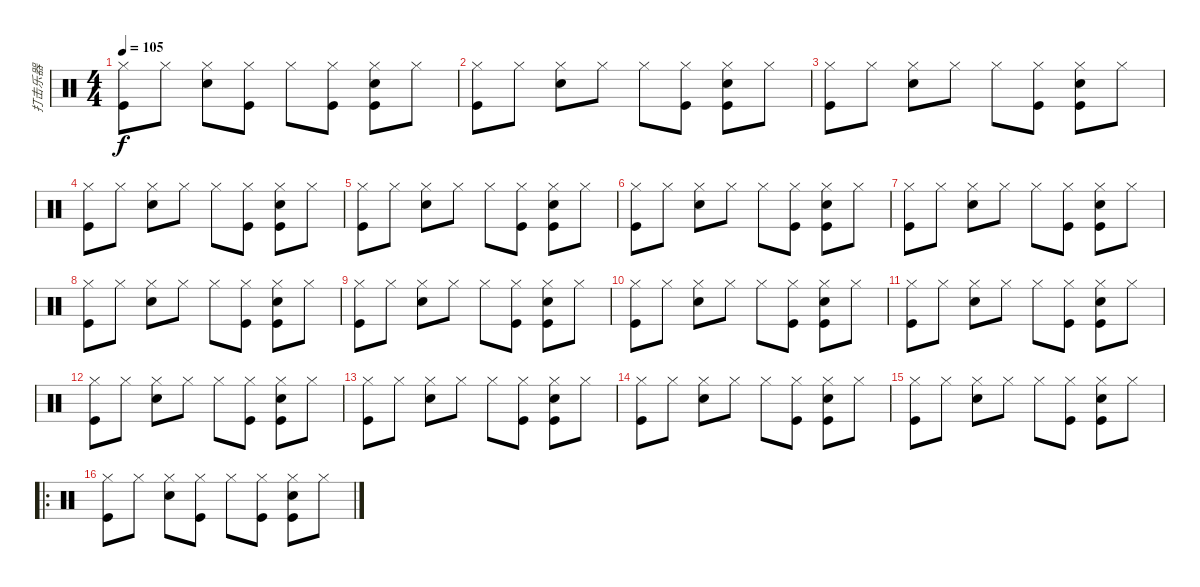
\track ("打击乐器" "打击乐器") {instrument percussion}
\staff {score}
\articulation defaults
\ts (4 4)
\tempo 105
\clef neutral
\ks c
("Hi-Hat (closed)" "Kick (hit)").8{dy f} "Hi-Hat (closed)".8 ("Hi-Hat (closed)" "Snare (hit) 2").8 ("Hi-Hat (closed)" "Kick (hit)").8 "Hi-Hat (closed)".8 ("Hi-Hat (closed)" "Kick (hit)").8 ("Hi-Hat (closed)" "Snare (hit) 2" "Kick (hit)").8 "Hi-Hat (closed)".8 |
("Hi-Hat (closed)" "Kick (hit)").8 "Hi-Hat (closed)".8 ("Hi-Hat (closed)" "Snare (hit) 2").8 "Hi-Hat (closed)".8 "Hi-Hat (closed)".8 ("Hi-Hat (closed)" "Kick (hit)").8 ("Hi-Hat (closed)" "Snare (hit) 2" "Kick (hit)").8 "Hi-Hat (closed)".8 |
("Hi-Hat (closed)" "Kick (hit)").8 "Hi-Hat (closed)".8 ("Hi-Hat (closed)" "Snare (hit) 2").8 "Hi-Hat (closed)".8 "Hi-Hat (closed)".8 ("Hi-Hat (closed)" "Kick (hit)").8 ("Hi-Hat (closed)" "Snare (hit) 2" "Kick (hit)").8 "Hi-Hat (closed)".8 |
("Hi-Hat (closed)" "Kick (hit)").8 "Hi-Hat (closed)".8 ("Hi-Hat (closed)" "Snare (hit) 2").8 "Hi-Hat (closed)".8 "Hi-Hat (closed)".8 ("Hi-Hat (closed)" "Kick (hit)").8 ("Hi-Hat (closed)" "Snare (hit) 2" "Kick (hit)").8 "Hi-Hat (closed)".8 |
("Hi-Hat (closed)" "Kick (hit)").8 "Hi-Hat (closed)".8 ("Hi-Hat (closed)" "Snare (hit) 2").8 "Hi-Hat (closed)".8 "Hi-Hat (closed)".8 ("Hi-Hat (closed)" "Kick (hit)").8 ("Hi-Hat (closed)" "Snare (hit) 2" "Kick (hit)").8 "Hi-Hat (closed)".8 |
("Hi-Hat (closed)" "Kick (hit)").8 "Hi-Hat (closed)".8 ("Hi-Hat (closed)" "Snare (hit) 2").8 "Hi-Hat (closed)".8 "Hi-Hat (closed)".8 ("Hi-Hat (closed)" "Kick (hit)").8 ("Hi-Hat (closed)" "Snare (hit) 2" "Kick (hit)").8 "Hi-Hat (closed)".8 |
("Hi-Hat (closed)" "Kick (hit)").8 "Hi-Hat (closed)".8 ("Hi-Hat (closed)" "Snare (hit) 2").8 "Hi-Hat (closed)".8 "Hi-Hat (closed)".8 ("Hi-Hat (closed)" "Kick (hit)").8 ("Hi-Hat (closed)" "Snare (hit) 2" "Kick (hit)").8 "Hi-Hat (closed)".8 |
("Hi-Hat (closed)" "Kick (hit)").8 "Hi-Hat (closed)".8 ("Hi-Hat (closed)" "Snare (hit) 2").8 "Hi-Hat (closed)".8 "Hi-Hat (closed)".8 ("Hi-Hat (closed)" "Kick (hit)").8 ("Hi-Hat (closed)" "Snare (hit) 2" "Kick (hit)").8 "Hi-Hat (closed)".8 |
("Hi-Hat (closed)" "Kick (hit)").8 "Hi-Hat (closed)".8 ("Hi-Hat (closed)" "Snare (hit) 2").8 "Hi-Hat (closed)".8 "Hi-Hat (closed)".8 ("Hi-Hat (closed)" "Kick (hit)").8 ("Hi-Hat (closed)" "Snare (hit) 2" "Kick (hit)").8 "Hi-Hat (closed)".8 |
("Hi-Hat (closed)" "Kick (hit)").8 "Hi-Hat (closed)".8 ("Hi-Hat (closed)" "Snare (hit) 2").8 "Hi-Hat (closed)".8 "Hi-Hat (closed)".8 ("Hi-Hat (closed)" "Kick (hit)").8 ("Hi-Hat (closed)" "Snare (hit) 2" "Kick (hit)").8 "Hi-Hat (closed)".8 |
("Hi-Hat (closed)" "Kick (hit)").8 "Hi-Hat (closed)".8 ("Hi-Hat (closed)" "Snare (hit) 2").8 "Hi-Hat (closed)".8 "Hi-Hat (closed)".8 ("Hi-Hat (closed)" "Kick (hit)").8 ("Hi-Hat (closed)" "Snare (hit) 2" "Kick (hit)").8 "Hi-Hat (closed)".8 |
("Hi-Hat (closed)" "Kick (hit)").8 "Hi-Hat (closed)".8 ("Hi-Hat (closed)" "Snare (hit) 2").8 "Hi-Hat (closed)".8 "Hi-Hat (closed)".8 ("Hi-Hat (closed)" "Kick (hit)").8 ("Hi-Hat (closed)" "Snare (hit) 2" "Kick (hit)").8 "Hi-Hat (closed)".8 |
("Hi-Hat (closed)" "Kick (hit)").8 "Hi-Hat (closed)".8 ("Hi-Hat (closed)" "Snare (hit) 2").8 "Hi-Hat (closed)".8 "Hi-Hat (closed)".8 ("Hi-Hat (closed)" "Kick (hit)").8 ("Hi-Hat (closed)" "Snare (hit) 2" "Kick (hit)").8 "Hi-Hat (closed)".8 |
("Hi-Hat (closed)" "Kick (hit)").8 "Hi-Hat (closed)".8 ("Hi-Hat (closed)" "Snare (hit) 2").8 "Hi-Hat (closed)".8 "Hi-Hat (closed)".8 ("Hi-Hat (closed)" "Kick (hit)").8 ("Hi-Hat (closed)" "Snare (hit) 2" "Kick (hit)").8 "Hi-Hat (closed)".8 |
("Hi-Hat (closed)" "Kick (hit)").8 "Hi-Hat (closed)".8 ("Hi-Hat (closed)" "Snare (hit) 2").8 "Hi-Hat (closed)".8 "Hi-Hat (closed)".8 ("Hi-Hat (closed)" "Kick (hit)").8 ("Hi-Hat (closed)" "Snare (hit) 2" "Kick (hit)").8 "Hi-Hat (closed)".8 |
\ro
("Hi-Hat (closed)" "Kick (hit)").8 "Hi-Hat (closed)".8 ("Hi-Hat (closed)" "Snare (hit) 2").8 ("Hi-Hat (closed)" "Kick (hit)").8 "Hi-Hat (closed)".8 ("Hi-Hat (closed)" "Kick (hit)").8 ("Hi-Hat (closed)" "Snare (hit) 2" "Kick (hit)").8 "Hi-Hat (closed)".8
